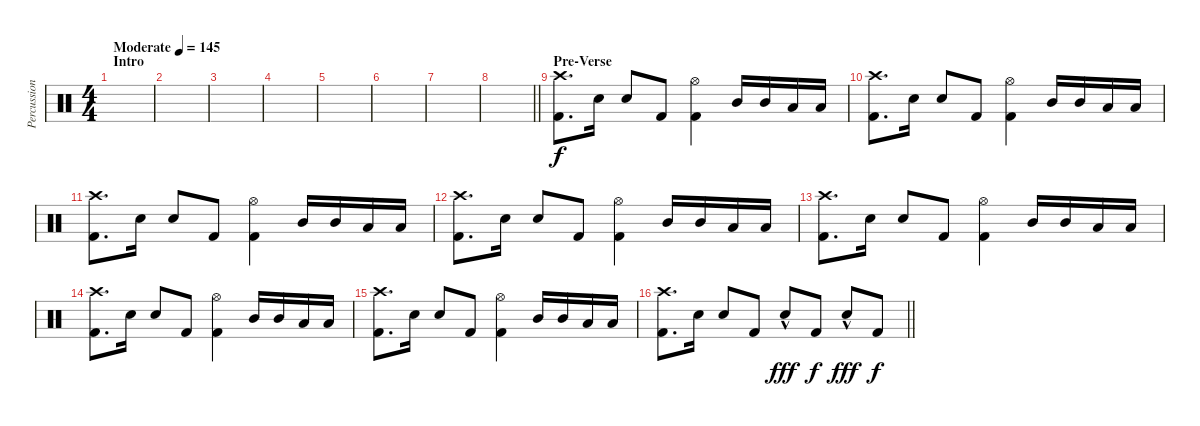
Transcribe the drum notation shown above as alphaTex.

\track ("Percussion" "Percussion") {instrument percussion}
\staff {score}
\articulation defaults
\ts (4 4)
\section ("" "Intro")
\tempo (145 "Moderate")
\clef neutral
\ks c
|
|
|
|
|
|
|
\barLineRight lightlight
|
\section ("" "Pre-Verse")
("Crash high (hit)" "Kick (hit) 2").8{d} "Snare (hit) 2".16 "Snare (hit) 2".8 "Kick (hit) 2".8 ("Hi-Hat (open)" "Kick (hit) 2").4 "Mid Tom (hit)".16 "Mid Tom (hit)".16 "Low Tom (hit)".16 "Low Tom (hit)".16 |
("Crash high (hit)" "Kick (hit) 2").8{d} "Snare (hit) 2".16 "Snare (hit) 2".8 "Kick (hit) 2".8 ("Hi-Hat (open)" "Kick (hit) 2").4 "Mid Tom (hit)".16 "Mid Tom (hit)".16 "Low Tom (hit)".16 "Low Tom (hit)".16 |
("Crash high (hit)" "Kick (hit) 2").8{d} "Snare (hit) 2".16 "Snare (hit) 2".8 "Kick (hit) 2".8 ("Hi-Hat (open)" "Kick (hit) 2").4 "Mid Tom (hit)".16 "Mid Tom (hit)".16 "Low Tom (hit)".16 "Low Tom (hit)".16 |
("Crash high (hit)" "Kick (hit) 2").8{d} "Snare (hit) 2".16 "Snare (hit) 2".8 "Kick (hit) 2".8 ("Hi-Hat (open)" "Kick (hit) 2").4 "Mid Tom (hit)".16 "Mid Tom (hit)".16 "Low Tom (hit)".16 "Low Tom (hit)".16 |
("Crash high (hit)" "Kick (hit) 2").8{d} "Snare (hit) 2".16 "Snare (hit) 2".8 "Kick (hit) 2".8 ("Hi-Hat (open)" "Kick (hit) 2").4 "Mid Tom (hit)".16 "Mid Tom (hit)".16 "Low Tom (hit)".16 "Low Tom (hit)".16 |
("Crash high (hit)" "Kick (hit) 2").8{d} "Snare (hit) 2".16 "Snare (hit) 2".8 "Kick (hit) 2".8 ("Hi-Hat (open)" "Kick (hit) 2").4 "Mid Tom (hit)".16 "Mid Tom (hit)".16 "Low Tom (hit)".16 "Low Tom (hit)".16 |
("Crash high (hit)" "Kick (hit) 2").8{d} "Snare (hit) 2".16 "Snare (hit) 2".8 "Kick (hit) 2".8 ("Hi-Hat (open)" "Kick (hit) 2").4 "Mid Tom (hit)".16 "Mid Tom (hit)".16 "Low Tom (hit)".16 "Low Tom (hit)".16 |
\barLineRight lightlight
("Crash high (hit)" "Kick (hit) 2").8{d} "Snare (hit) 2".16 "Snare (hit) 2".8 "Kick (hit) 2".8 "Snare (hit) 2"{hac}.8{dy fff} "Kick (hit) 2".8{dy f} "Snare (hit) 2"{hac}.8{dy fff} "Kick (hit) 2".8{dy f}
